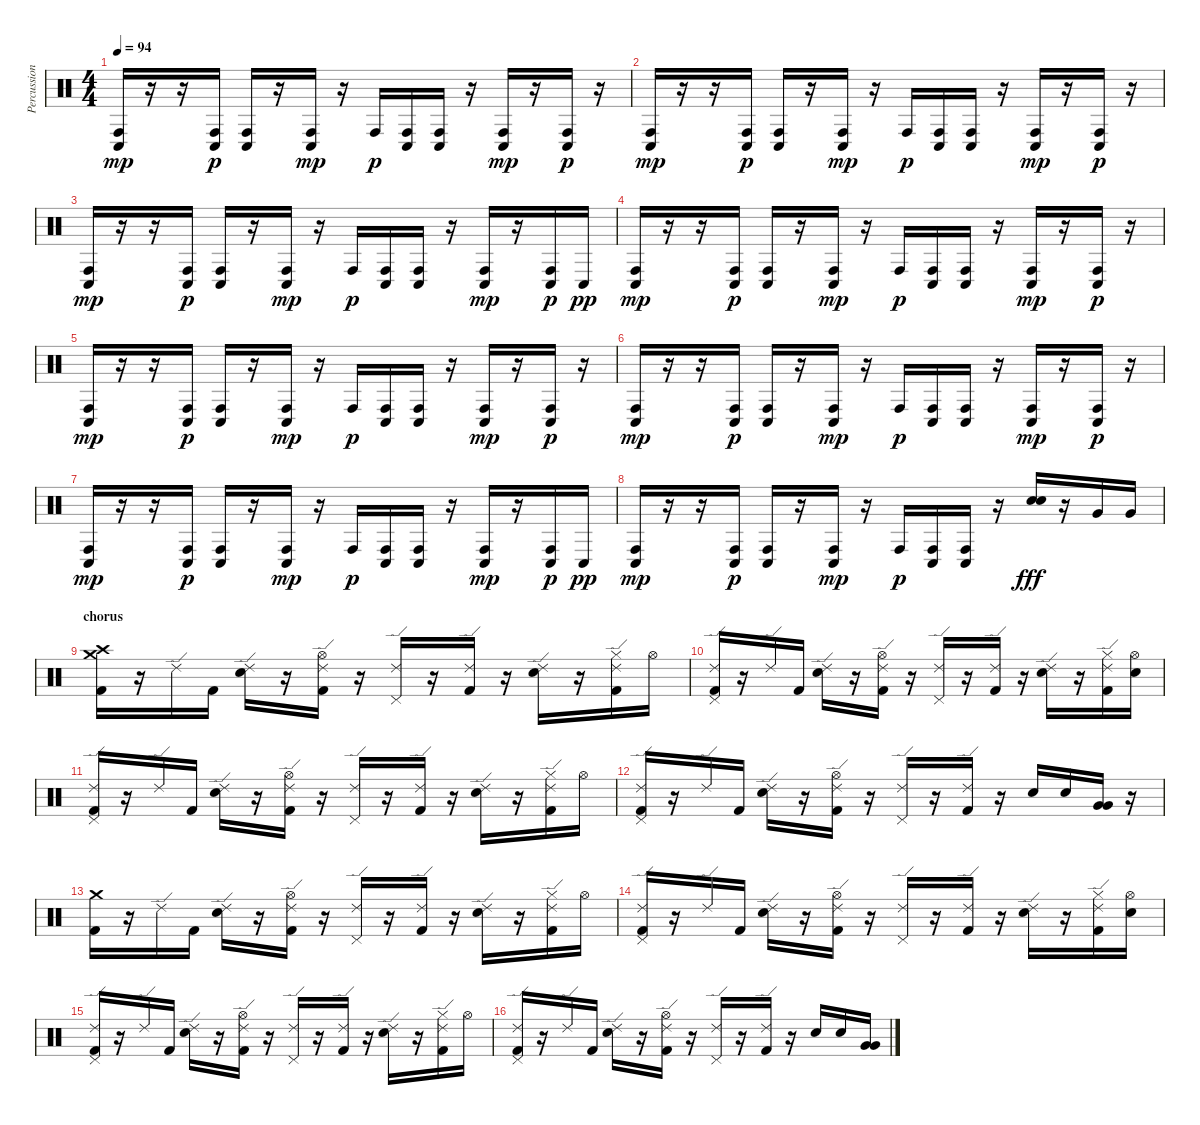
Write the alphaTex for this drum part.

\track ("Percussion" "Percussion") {instrument percussion}
\staff {score}
\articulation defaults
\ts (4 4)
\tempo 94
\clef neutral
\ks c
("Conga low (hit)" "Conga high (hit)").16{dy mp} r.16 r.16 ("Conga low (hit)" "Conga high (hit)").16{dy p} ("Conga low (hit)" "Conga high (hit)").16 r.16 ("Conga low (hit)" "Conga high (hit)").16{dy mp} r.16 "Conga high (hit)".16{dy p} ("Conga low (hit)" "Conga high (hit)").16 ("Conga low (hit)" "Conga high (hit)").16 r.16 ("Conga low (hit)" "Conga high (hit)").16{dy mp} r.16 ("Conga low (hit)" "Conga high (hit)").16{dy p} r.16 |
("Conga low (hit)" "Conga high (hit)").16{dy mp} r.16 r.16 ("Conga low (hit)" "Conga high (hit)").16{dy p} ("Conga low (hit)" "Conga high (hit)").16 r.16 ("Conga low (hit)" "Conga high (hit)").16{dy mp} r.16 "Conga high (hit)".16{dy p} ("Conga low (hit)" "Conga high (hit)").16 ("Conga low (hit)" "Conga high (hit)").16 r.16 ("Conga low (hit)" "Conga high (hit)").16{dy mp} r.16 ("Conga low (hit)" "Conga high (hit)").16{dy p} r.16 |
("Conga low (hit)" "Conga high (hit)").16{dy mp} r.16 r.16 ("Conga low (hit)" "Conga high (hit)").16{dy p} ("Conga low (hit)" "Conga high (hit)").16 r.16 ("Conga low (hit)" "Conga high (hit)").16{dy mp} r.16 "Conga high (hit)".16{dy p} ("Conga low (hit)" "Conga high (hit)").16 ("Conga low (hit)" "Conga high (hit)").16 r.16 ("Conga low (hit)" "Conga high (hit)").16{dy mp} r.16 ("Conga low (hit)" "Conga high (hit)").16{dy p} "Conga low (hit)".16{dy pp} |
("Conga low (hit)" "Conga high (hit)").16{dy mp} r.16 r.16 ("Conga low (hit)" "Conga high (hit)").16{dy p} ("Conga low (hit)" "Conga high (hit)").16 r.16 ("Conga low (hit)" "Conga high (hit)").16{dy mp} r.16 "Conga high (hit)".16{dy p} ("Conga low (hit)" "Conga high (hit)").16 ("Conga low (hit)" "Conga high (hit)").16 r.16 ("Conga low (hit)" "Conga high (hit)").16{dy mp} r.16 ("Conga low (hit)" "Conga high (hit)").16{dy p} r.16 |
("Conga low (hit)" "Conga high (hit)").16{dy mp} r.16 r.16 ("Conga low (hit)" "Conga high (hit)").16{dy p} ("Conga low (hit)" "Conga high (hit)").16 r.16 ("Conga low (hit)" "Conga high (hit)").16{dy mp} r.16 "Conga high (hit)".16{dy p} ("Conga low (hit)" "Conga high (hit)").16 ("Conga low (hit)" "Conga high (hit)").16 r.16 ("Conga low (hit)" "Conga high (hit)").16{dy mp} r.16 ("Conga low (hit)" "Conga high (hit)").16{dy p} r.16 |
("Conga low (hit)" "Conga high (hit)").16{dy mp} r.16 r.16 ("Conga low (hit)" "Conga high (hit)").16{dy p} ("Conga low (hit)" "Conga high (hit)").16 r.16 ("Conga low (hit)" "Conga high (hit)").16{dy mp} r.16 "Conga high (hit)".16{dy p} ("Conga low (hit)" "Conga high (hit)").16 ("Conga low (hit)" "Conga high (hit)").16 r.16 ("Conga low (hit)" "Conga high (hit)").16{dy mp} r.16 ("Conga low (hit)" "Conga high (hit)").16{dy p} r.16 |
("Conga low (hit)" "Conga high (hit)").16{dy mp} r.16 r.16 ("Conga low (hit)" "Conga high (hit)").16{dy p} ("Conga low (hit)" "Conga high (hit)").16 r.16 ("Conga low (hit)" "Conga high (hit)").16{dy mp} r.16 "Conga high (hit)".16{dy p} ("Conga low (hit)" "Conga high (hit)").16 ("Conga low (hit)" "Conga high (hit)").16 r.16 ("Conga low (hit)" "Conga high (hit)").16{dy mp} r.16 ("Conga low (hit)" "Conga high (hit)").16{dy p} "Conga low (hit)".16{dy pp} |
("Conga low (hit)" "Conga high (hit)").16{dy mp} r.16 r.16 ("Conga low (hit)" "Conga high (hit)").16{dy p} ("Conga low (hit)" "Conga high (hit)").16 r.16 ("Conga low (hit)" "Conga high (hit)").16{dy mp} r.16 "Conga high (hit)".16{dy p} ("Conga low (hit)" "Conga high (hit)").16 ("Conga low (hit)" "Conga high (hit)").16 r.16 ("Electric Snare (hit)" "Electric Snare (hit)").16{dy fff} r.16 "Very Low Tom (hit)".16 "Very Low Tom (hit)".16 |
\section ("" "chorus")
("Crash medium (hit)" "Crash high (hit)" "Kick (hit) 2").16 r.16 "Ride (edge) 2".16 "Kick (hit) 2".16 ("Ride (edge) 2" "Electric Snare (hit)").16 r.16 ("Ride (edge) 2" "Hi-Hat (open)" "Kick (hit) 2").16 r.16 ("Ride (edge) 2" "Pedal Hi-Hat (hit)").16 r.16 ("Ride (edge) 2" "Kick (hit) 2").16 r.16 ("Ride (edge) 2" "Electric Snare (hit)").16 r.16 ("Ride (edge) 2" "Hi-Hat (closed)" "Kick (hit) 2").16 "Hi-Hat (open)".16 |
("Ride (edge) 2" "Pedal Hi-Hat (hit)" "Kick (hit) 2").16 r.16 "Ride (edge) 2".16 "Kick (hit) 2".16 ("Ride (edge) 2" "Electric Snare (hit)").16 r.16 ("Ride (edge) 2" "Hi-Hat (open)" "Kick (hit) 2").16 r.16 ("Ride (edge) 2" "Pedal Hi-Hat (hit)").16 r.16 ("Ride (edge) 2" "Kick (hit) 2").16 r.16 ("Ride (edge) 2" "Electric Snare (hit)").16 r.16 ("Ride (edge) 2" "Hi-Hat (closed)" "Kick (hit) 2").16 ("Hi-Hat (open)" "Electric Snare (hit)").16 |
("Ride (edge) 2" "Pedal Hi-Hat (hit)" "Kick (hit) 2").16 r.16 "Ride (edge) 2".16 "Kick (hit) 2".16 ("Ride (edge) 2" "Electric Snare (hit)").16 r.16 ("Ride (edge) 2" "Hi-Hat (open)" "Kick (hit) 2").16 r.16 ("Ride (edge) 2" "Pedal Hi-Hat (hit)").16 r.16 ("Ride (edge) 2" "Kick (hit) 2").16 r.16 ("Ride (edge) 2" "Electric Snare (hit)").16 r.16 ("Ride (edge) 2" "Hi-Hat (closed)" "Kick (hit) 2").16 "Hi-Hat (open)".16 |
("Ride (edge) 2" "Pedal Hi-Hat (hit)" "Kick (hit) 2").16 r.16 "Ride (edge) 2".16 "Kick (hit) 2".16 ("Ride (edge) 2" "Electric Snare (hit)").16 r.16 ("Ride (edge) 2" "Hi-Hat (open)" "Kick (hit) 2").16 r.16 ("Ride (edge) 2" "Pedal Hi-Hat (hit)").16 r.16 ("Ride (edge) 2" "Kick (hit) 2").16 r.16 "Electric Snare (hit)".16 "Electric Snare (hit)".16 ("Very Low Tom (hit)" "Very Low Tom (hit)").16 r.16 |
("Crash medium (hit)" "Kick (hit) 2").16 r.16 "Ride (edge) 2".16 "Kick (hit) 2".16 ("Ride (edge) 2" "Electric Snare (hit)").16 r.16 ("Ride (edge) 2" "Hi-Hat (open)" "Kick (hit) 2").16 r.16 ("Ride (edge) 2" "Pedal Hi-Hat (hit)").16 r.16 ("Ride (edge) 2" "Kick (hit) 2").16 r.16 ("Ride (edge) 2" "Electric Snare (hit)").16 r.16 ("Ride (edge) 2" "Hi-Hat (closed)" "Kick (hit) 2").16 "Hi-Hat (open)".16 |
("Ride (edge) 2" "Pedal Hi-Hat (hit)" "Kick (hit) 2").16 r.16 "Ride (edge) 2".16 "Kick (hit) 2".16 ("Ride (edge) 2" "Electric Snare (hit)").16 r.16 ("Ride (edge) 2" "Hi-Hat (open)" "Kick (hit) 2").16 r.16 ("Ride (edge) 2" "Pedal Hi-Hat (hit)").16 r.16 ("Ride (edge) 2" "Kick (hit) 2").16 r.16 ("Ride (edge) 2" "Electric Snare (hit)").16 r.16 ("Ride (edge) 2" "Hi-Hat (closed)" "Kick (hit) 2").16 ("Hi-Hat (open)" "Electric Snare (hit)").16 |
("Ride (edge) 2" "Pedal Hi-Hat (hit)" "Kick (hit) 2").16 r.16 "Ride (edge) 2".16 "Kick (hit) 2".16 ("Ride (edge) 2" "Electric Snare (hit)").16 r.16 ("Ride (edge) 2" "Hi-Hat (open)" "Kick (hit) 2").16 r.16 ("Ride (edge) 2" "Pedal Hi-Hat (hit)").16 r.16 ("Ride (edge) 2" "Kick (hit) 2").16 r.16 ("Ride (edge) 2" "Electric Snare (hit)").16 r.16 ("Ride (edge) 2" "Hi-Hat (closed)" "Kick (hit) 2").16 "Hi-Hat (open)".16 |
("Ride (edge) 2" "Pedal Hi-Hat (hit)" "Kick (hit) 2").16 r.16 "Ride (edge) 2".16 "Kick (hit) 2".16 ("Ride (edge) 2" "Electric Snare (hit)").16 r.16 ("Ride (edge) 2" "Hi-Hat (open)" "Kick (hit) 2").16 r.16 ("Ride (edge) 2" "Pedal Hi-Hat (hit)").16 r.16 ("Ride (edge) 2" "Kick (hit) 2").16 r.16 "Electric Snare (hit)".16 "Electric Snare (hit)".16 ("Very Low Tom (hit)" "Very Low Tom (hit)").16
